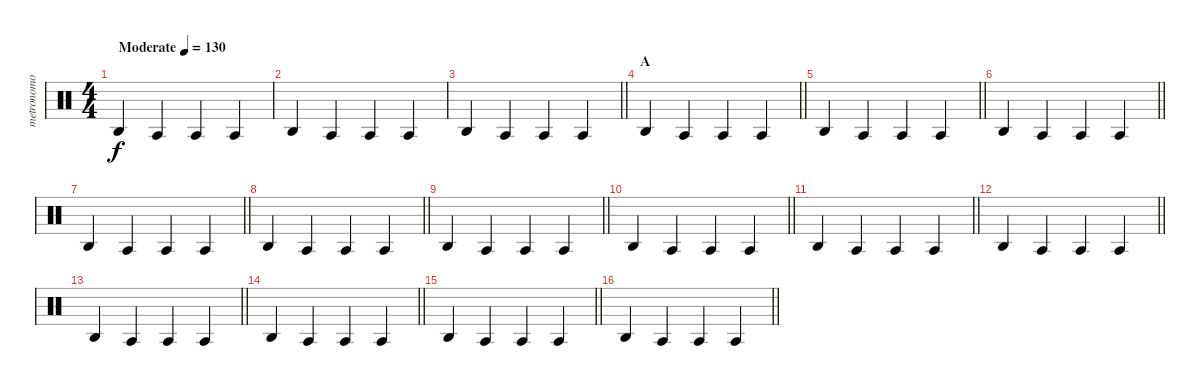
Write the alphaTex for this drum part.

\track ("metronomo" "metronomo") {mute instrument percussion}
\staff {score}
\articulation defaults
\ts (4 4)
\tempo (130 "Moderate")
\clef neutral
\ks c "Agogo high (hit)".4{dy f} "Agogo tow (hit)".4 "Agogo tow (hit)".4 "Agogo tow (hit)".4
|
"Agogo high (hit)".4 "Agogo tow (hit)".4 "Agogo tow (hit)".4 "Agogo tow (hit)".4 |
\barLineRight lightlight "Agogo high (hit)".4 "Agogo tow (hit)".4 "Agogo tow (hit)".4 "Agogo tow (hit)".4
|
\section ("" "A")
\barLineRight lightlight "Agogo high (hit)".4 "Agogo tow (hit)".4 "Agogo tow (hit)".4 "Agogo tow (hit)".4
|
\barLineRight lightlight "Agogo high (hit)".4 "Agogo tow (hit)".4 "Agogo tow (hit)".4 "Agogo tow (hit)".4
|
\barLineRight lightlight "Agogo high (hit)".4 "Agogo tow (hit)".4 "Agogo tow (hit)".4 "Agogo tow (hit)".4
|
\barLineRight lightlight "Agogo high (hit)".4 "Agogo tow (hit)".4 "Agogo tow (hit)".4 "Agogo tow (hit)".4
|
\barLineRight lightlight "Agogo high (hit)".4 "Agogo tow (hit)".4 "Agogo tow (hit)".4 "Agogo tow (hit)".4
|
\barLineRight lightlight "Agogo high (hit)".4 "Agogo tow (hit)".4 "Agogo tow (hit)".4 "Agogo tow (hit)".4
|
\barLineRight lightlight "Agogo high (hit)".4 "Agogo tow (hit)".4 "Agogo tow (hit)".4 "Agogo tow (hit)".4
|
\barLineRight lightlight "Agogo high (hit)".4 "Agogo tow (hit)".4 "Agogo tow (hit)".4 "Agogo tow (hit)".4
|
\barLineRight lightlight "Agogo high (hit)".4 "Agogo tow (hit)".4 "Agogo tow (hit)".4 "Agogo tow (hit)".4
|
\barLineRight lightlight "Agogo high (hit)".4 "Agogo tow (hit)".4 "Agogo tow (hit)".4 "Agogo tow (hit)".4
|
\barLineRight lightlight "Agogo high (hit)".4 "Agogo tow (hit)".4 "Agogo tow (hit)".4 "Agogo tow (hit)".4
|
\barLineRight lightlight "Agogo high (hit)".4 "Agogo tow (hit)".4 "Agogo tow (hit)".4 "Agogo tow (hit)".4
|
\barLineRight lightlight "Agogo high (hit)".4 "Agogo tow (hit)".4 "Agogo tow (hit)".4 "Agogo tow (hit)".4
